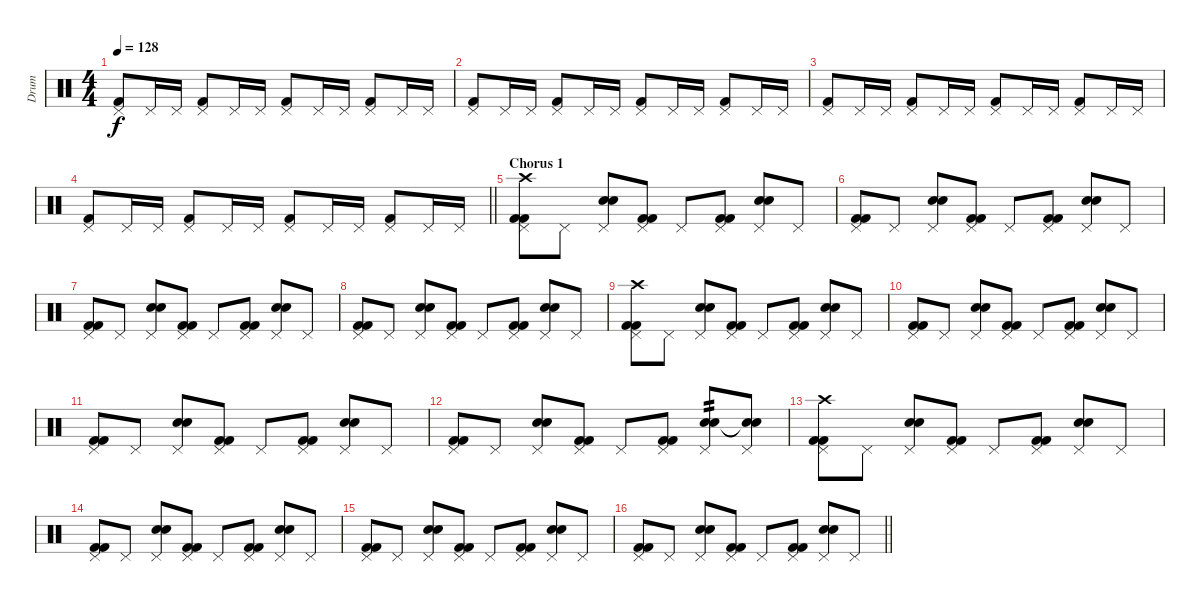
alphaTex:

\track ("Drum" "Drum") {instrument percussion}
\staff {score}
\articulation defaults
\ts (4 4)
\tempo 128
\clef neutral
\ks c
("Pedal Hi-Hat (hit)" "Kick (hit) 2").8{dy f} "Pedal Hi-Hat (hit)".16 "Pedal Hi-Hat (hit)".16 ("Pedal Hi-Hat (hit)" "Kick (hit) 2").8 "Pedal Hi-Hat (hit)".16 "Pedal Hi-Hat (hit)".16 ("Pedal Hi-Hat (hit)" "Kick (hit) 2").8 "Pedal Hi-Hat (hit)".16 "Pedal Hi-Hat (hit)".16 ("Pedal Hi-Hat (hit)" "Kick (hit) 2").8 "Pedal Hi-Hat (hit)".16 "Pedal Hi-Hat (hit)".16 |
("Pedal Hi-Hat (hit)" "Kick (hit) 2").8 "Pedal Hi-Hat (hit)".16 "Pedal Hi-Hat (hit)".16 ("Pedal Hi-Hat (hit)" "Kick (hit) 2").8 "Pedal Hi-Hat (hit)".16 "Pedal Hi-Hat (hit)".16 ("Pedal Hi-Hat (hit)" "Kick (hit) 2").8 "Pedal Hi-Hat (hit)".16 "Pedal Hi-Hat (hit)".16 ("Pedal Hi-Hat (hit)" "Kick (hit) 2").8 "Pedal Hi-Hat (hit)".16 "Pedal Hi-Hat (hit)".16 |
("Pedal Hi-Hat (hit)" "Kick (hit) 2").8 "Pedal Hi-Hat (hit)".16 "Pedal Hi-Hat (hit)".16 ("Pedal Hi-Hat (hit)" "Kick (hit) 2").8 "Pedal Hi-Hat (hit)".16 "Pedal Hi-Hat (hit)".16 ("Pedal Hi-Hat (hit)" "Kick (hit) 2").8 "Pedal Hi-Hat (hit)".16 "Pedal Hi-Hat (hit)".16 ("Pedal Hi-Hat (hit)" "Kick (hit) 2").8 "Pedal Hi-Hat (hit)".16 "Pedal Hi-Hat (hit)".16 |
\barLineRight lightlight
("Pedal Hi-Hat (hit)" "Kick (hit) 2").8 "Pedal Hi-Hat (hit)".16 "Pedal Hi-Hat (hit)".16 ("Pedal Hi-Hat (hit)" "Kick (hit) 2").8 "Pedal Hi-Hat (hit)".16 "Pedal Hi-Hat (hit)".16 ("Pedal Hi-Hat (hit)" "Kick (hit) 2").8 "Pedal Hi-Hat (hit)".16 "Pedal Hi-Hat (hit)".16 ("Pedal Hi-Hat (hit)" "Kick (hit) 2").8 "Pedal Hi-Hat (hit)".16 "Pedal Hi-Hat (hit)".16 |
\section ("" "Chorus 1")
("Kick (hit) 2" "Kick (hit) 2" "Pedal Hi-Hat (hit)" "Crash high (hit)").8 "Pedal Hi-Hat (hit)".8 ("Snare (hit) 2" "Snare (hit) 2" "Pedal Hi-Hat (hit)").8 ("Kick (hit) 2" "Kick (hit) 2" "Pedal Hi-Hat (hit)").8 "Pedal Hi-Hat (hit)".8 ("Kick (hit) 2" "Kick (hit) 2" "Pedal Hi-Hat (hit)").8 ("Snare (hit) 2" "Snare (hit) 2" "Pedal Hi-Hat (hit)").8 "Pedal Hi-Hat (hit)".8 |
("Kick (hit) 2" "Kick (hit) 2" "Pedal Hi-Hat (hit)").8 "Pedal Hi-Hat (hit)".8 ("Snare (hit) 2" "Snare (hit) 2" "Pedal Hi-Hat (hit)").8 ("Kick (hit) 2" "Kick (hit) 2" "Pedal Hi-Hat (hit)").8 "Pedal Hi-Hat (hit)".8 ("Kick (hit) 2" "Kick (hit) 2" "Pedal Hi-Hat (hit)").8 ("Snare (hit) 2" "Snare (hit) 2" "Pedal Hi-Hat (hit)").8 "Pedal Hi-Hat (hit)".8 |
("Kick (hit) 2" "Kick (hit) 2" "Pedal Hi-Hat (hit)").8 "Pedal Hi-Hat (hit)".8 ("Snare (hit) 2" "Snare (hit) 2" "Pedal Hi-Hat (hit)").8 ("Kick (hit) 2" "Kick (hit) 2" "Pedal Hi-Hat (hit)").8 "Pedal Hi-Hat (hit)".8 ("Kick (hit) 2" "Kick (hit) 2" "Pedal Hi-Hat (hit)").8 ("Snare (hit) 2" "Snare (hit) 2" "Pedal Hi-Hat (hit)").8 "Pedal Hi-Hat (hit)".8 |
("Kick (hit) 2" "Kick (hit) 2" "Pedal Hi-Hat (hit)").8 "Pedal Hi-Hat (hit)".8 ("Snare (hit) 2" "Snare (hit) 2" "Pedal Hi-Hat (hit)").8 ("Kick (hit) 2" "Kick (hit) 2" "Pedal Hi-Hat (hit)").8 "Pedal Hi-Hat (hit)".8 ("Kick (hit) 2" "Kick (hit) 2" "Pedal Hi-Hat (hit)").8 ("Snare (hit) 2" "Snare (hit) 2" "Pedal Hi-Hat (hit)").8 "Pedal Hi-Hat (hit)".8 |
("Kick (hit) 2" "Kick (hit) 2" "Pedal Hi-Hat (hit)" "Crash high (hit)").8 "Pedal Hi-Hat (hit)".8 ("Snare (hit) 2" "Snare (hit) 2" "Pedal Hi-Hat (hit)").8 ("Kick (hit) 2" "Kick (hit) 2" "Pedal Hi-Hat (hit)").8 "Pedal Hi-Hat (hit)".8 ("Kick (hit) 2" "Kick (hit) 2" "Pedal Hi-Hat (hit)").8 ("Snare (hit) 2" "Snare (hit) 2" "Pedal Hi-Hat (hit)").8 "Pedal Hi-Hat (hit)".8 |
("Kick (hit) 2" "Kick (hit) 2" "Pedal Hi-Hat (hit)").8 "Pedal Hi-Hat (hit)".8 ("Snare (hit) 2" "Snare (hit) 2" "Pedal Hi-Hat (hit)").8 ("Kick (hit) 2" "Kick (hit) 2" "Pedal Hi-Hat (hit)").8 "Pedal Hi-Hat (hit)".8 ("Kick (hit) 2" "Kick (hit) 2" "Pedal Hi-Hat (hit)").8 ("Snare (hit) 2" "Snare (hit) 2" "Pedal Hi-Hat (hit)").8 "Pedal Hi-Hat (hit)".8 |
("Kick (hit) 2" "Kick (hit) 2" "Pedal Hi-Hat (hit)").8 "Pedal Hi-Hat (hit)".8 ("Snare (hit) 2" "Snare (hit) 2" "Pedal Hi-Hat (hit)").8 ("Kick (hit) 2" "Kick (hit) 2" "Pedal Hi-Hat (hit)").8 "Pedal Hi-Hat (hit)".8 ("Kick (hit) 2" "Kick (hit) 2" "Pedal Hi-Hat (hit)").8 ("Snare (hit) 2" "Snare (hit) 2" "Pedal Hi-Hat (hit)").8 "Pedal Hi-Hat (hit)".8 |
("Kick (hit) 2" "Kick (hit) 2" "Pedal Hi-Hat (hit)").8 "Pedal Hi-Hat (hit)".8 ("Snare (hit) 2" "Snare (hit) 2" "Pedal Hi-Hat (hit)").8 ("Kick (hit) 2" "Kick (hit) 2" "Pedal Hi-Hat (hit)").8 "Pedal Hi-Hat (hit)".8 ("Kick (hit) 2" "Kick (hit) 2" "Pedal Hi-Hat (hit)").8 ("Snare (hit) 2" "Snare (hit) 2" "Pedal Hi-Hat (hit)").8{tp 2} ("Snare (hit) 2"{t} "Snare (hit) 2"{t} "Pedal Hi-Hat (hit)").8 |
("Kick (hit) 2" "Kick (hit) 2" "Pedal Hi-Hat (hit)" "Crash high (hit)").8 "Pedal Hi-Hat (hit)".8 ("Snare (hit) 2" "Snare (hit) 2" "Pedal Hi-Hat (hit)").8 ("Kick (hit) 2" "Kick (hit) 2" "Pedal Hi-Hat (hit)").8 "Pedal Hi-Hat (hit)".8 ("Kick (hit) 2" "Kick (hit) 2" "Pedal Hi-Hat (hit)").8 ("Snare (hit) 2" "Snare (hit) 2" "Pedal Hi-Hat (hit)").8 "Pedal Hi-Hat (hit)".8 |
("Kick (hit) 2" "Kick (hit) 2" "Pedal Hi-Hat (hit)").8 "Pedal Hi-Hat (hit)".8 ("Snare (hit) 2" "Snare (hit) 2" "Pedal Hi-Hat (hit)").8 ("Kick (hit) 2" "Kick (hit) 2" "Pedal Hi-Hat (hit)").8 "Pedal Hi-Hat (hit)".8 ("Kick (hit) 2" "Kick (hit) 2" "Pedal Hi-Hat (hit)").8 ("Snare (hit) 2" "Snare (hit) 2" "Pedal Hi-Hat (hit)").8 "Pedal Hi-Hat (hit)".8 |
("Kick (hit) 2" "Kick (hit) 2" "Pedal Hi-Hat (hit)").8 "Pedal Hi-Hat (hit)".8 ("Snare (hit) 2" "Snare (hit) 2" "Pedal Hi-Hat (hit)").8 ("Kick (hit) 2" "Kick (hit) 2" "Pedal Hi-Hat (hit)").8 "Pedal Hi-Hat (hit)".8 ("Kick (hit) 2" "Kick (hit) 2" "Pedal Hi-Hat (hit)").8 ("Snare (hit) 2" "Snare (hit) 2" "Pedal Hi-Hat (hit)").8 "Pedal Hi-Hat (hit)".8 |
\barLineRight lightlight
("Kick (hit) 2" "Kick (hit) 2" "Pedal Hi-Hat (hit)").8 "Pedal Hi-Hat (hit)".8 ("Snare (hit) 2" "Snare (hit) 2" "Pedal Hi-Hat (hit)").8 ("Kick (hit) 2" "Kick (hit) 2" "Pedal Hi-Hat (hit)").8 "Pedal Hi-Hat (hit)".8 ("Kick (hit) 2" "Kick (hit) 2" "Pedal Hi-Hat (hit)").8 ("Snare (hit) 2" "Snare (hit) 2" "Pedal Hi-Hat (hit)").8 "Pedal Hi-Hat (hit)".8
